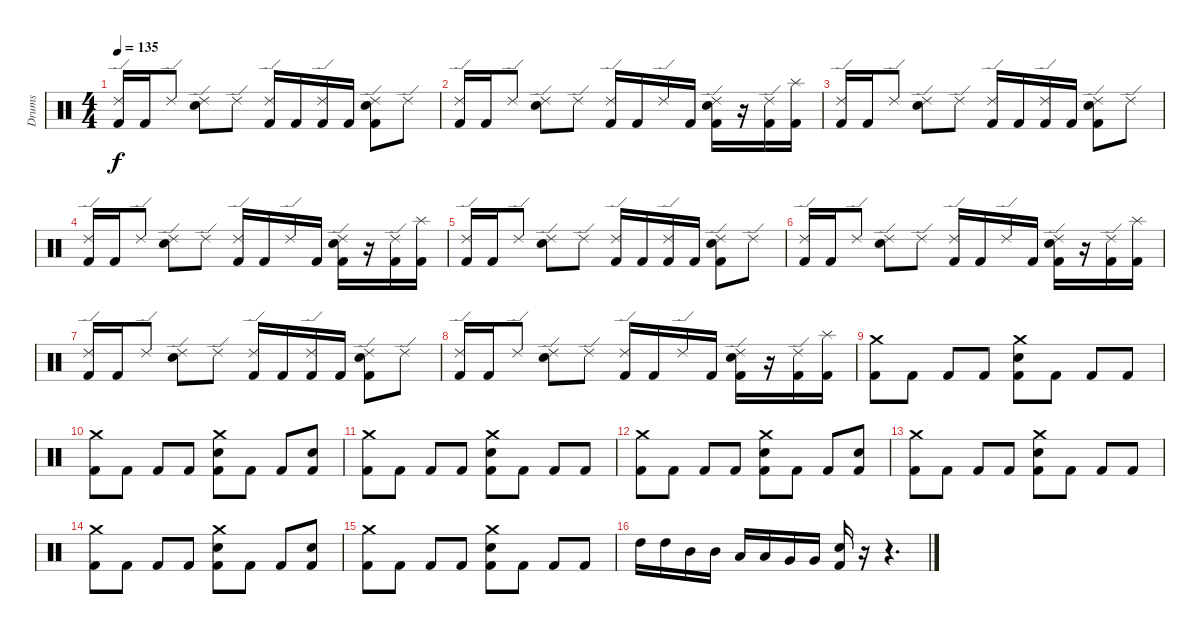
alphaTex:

\track ("Drums" "Drums") {instrument percussion}
\staff {score}
\articulation defaults
\ts (4 4)
\tempo 135
\clef neutral
\ks c
("Ride (edge) 2" "Kick (hit) 2").16{dy f} "Kick (hit) 2".16 "Ride (edge) 2".8 ("Ride (edge) 2" "Snare (hit) 2").8 "Ride (edge) 2".8 ("Ride (edge) 2" "Kick (hit) 2").16 "Kick (hit) 2".16 ("Ride (edge) 2" "Kick (hit) 2").16 "Kick (hit) 2".16 ("Ride (edge) 2" "Kick (hit) 2" "Snare (hit) 2").8 "Ride (edge) 2".8 |
("Ride (edge) 2" "Kick (hit) 2").16 "Kick (hit) 2".16 "Ride (edge) 2".8 ("Ride (edge) 2" "Snare (hit) 2").8 "Ride (edge) 2".8 ("Ride (edge) 2" "Kick (hit) 2").16 "Kick (hit) 2".16 "Ride (edge) 2".16 "Kick (hit) 2".16 ("Ride (edge) 2" "Kick (hit) 2" "Snare (hit) 2").16 r.16 ("Ride (edge) 2" "Kick (hit) 2").16 ("Splash (hit)" "Kick (hit) 2").16 |
("Ride (edge) 2" "Kick (hit) 2").16 "Kick (hit) 2".16 "Ride (edge) 2".8 ("Ride (edge) 2" "Snare (hit) 2").8 "Ride (edge) 2".8 ("Ride (edge) 2" "Kick (hit) 2").16 "Kick (hit) 2".16 ("Ride (edge) 2" "Kick (hit) 2").16 "Kick (hit) 2".16 ("Ride (edge) 2" "Kick (hit) 2" "Snare (hit) 2").8 "Ride (edge) 2".8 |
("Ride (edge) 2" "Kick (hit) 2").16 "Kick (hit) 2".16 "Ride (edge) 2".8 ("Ride (edge) 2" "Snare (hit) 2").8 "Ride (edge) 2".8 ("Ride (edge) 2" "Kick (hit) 2").16 "Kick (hit) 2".16 "Ride (edge) 2".16 "Kick (hit) 2".16 ("Ride (edge) 2" "Kick (hit) 2" "Snare (hit) 2").16 r.16 ("Ride (edge) 2" "Kick (hit) 2").16 ("Splash (hit)" "Kick (hit) 2").16 |
("Ride (edge) 2" "Kick (hit) 2").16 "Kick (hit) 2".16 "Ride (edge) 2".8 ("Ride (edge) 2" "Snare (hit) 2").8 "Ride (edge) 2".8 ("Ride (edge) 2" "Kick (hit) 2").16 "Kick (hit) 2".16 ("Ride (edge) 2" "Kick (hit) 2").16 "Kick (hit) 2".16 ("Ride (edge) 2" "Kick (hit) 2" "Snare (hit) 2").8 "Ride (edge) 2".8 |
("Ride (edge) 2" "Kick (hit) 2").16 "Kick (hit) 2".16 "Ride (edge) 2".8 ("Ride (edge) 2" "Snare (hit) 2").8 "Ride (edge) 2".8 ("Ride (edge) 2" "Kick (hit) 2").16 "Kick (hit) 2".16 "Ride (edge) 2".16 "Kick (hit) 2".16 ("Ride (edge) 2" "Kick (hit) 2" "Snare (hit) 2").16 r.16 ("Ride (edge) 2" "Kick (hit) 2").16 ("Splash (hit)" "Kick (hit) 2").16 |
("Ride (edge) 2" "Kick (hit) 2").16 "Kick (hit) 2".16 "Ride (edge) 2".8 ("Ride (edge) 2" "Snare (hit) 2").8 "Ride (edge) 2".8 ("Ride (edge) 2" "Kick (hit) 2").16 "Kick (hit) 2".16 ("Ride (edge) 2" "Kick (hit) 2").16 "Kick (hit) 2".16 ("Ride (edge) 2" "Kick (hit) 2" "Snare (hit) 2").8 "Ride (edge) 2".8 |
("Ride (edge) 2" "Kick (hit) 2").16 "Kick (hit) 2".16 "Ride (edge) 2".8 ("Ride (edge) 2" "Snare (hit) 2").8 "Ride (edge) 2".8 ("Ride (edge) 2" "Kick (hit) 2").16 "Kick (hit) 2".16 "Ride (edge) 2".16 "Kick (hit) 2".16 ("Ride (edge) 2" "Kick (hit) 2" "Snare (hit) 2").16 r.16 ("Ride (edge) 2" "Kick (hit) 2").16 ("Splash (hit)" "Kick (hit) 2").16 |
("Crash medium (hit)" "Kick (hit) 2").8 "Kick (hit) 2".8 "Kick (hit) 2".8 "Kick (hit) 2".8 ("Crash medium (hit)" "Kick (hit) 2" "Snare (hit) 2").8 "Kick (hit) 2".8 "Kick (hit) 2".8 "Kick (hit) 2".8 |
("Crash medium (hit)" "Kick (hit) 2").8 "Kick (hit) 2".8 "Kick (hit) 2".8 "Kick (hit) 2".8 ("Crash medium (hit)" "Kick (hit) 2" "Snare (hit) 2").8 "Kick (hit) 2".8 "Kick (hit) 2".8 ("Kick (hit) 2" "Snare (hit) 2").8 |
("Crash medium (hit)" "Kick (hit) 2").8 "Kick (hit) 2".8 "Kick (hit) 2".8 "Kick (hit) 2".8 ("Crash medium (hit)" "Kick (hit) 2" "Snare (hit) 2").8 "Kick (hit) 2".8 "Kick (hit) 2".8 "Kick (hit) 2".8 |
("Crash medium (hit)" "Kick (hit) 2").8 "Kick (hit) 2".8 "Kick (hit) 2".8 "Kick (hit) 2".8 ("Crash medium (hit)" "Kick (hit) 2" "Snare (hit) 2").8 "Kick (hit) 2".8 "Kick (hit) 2".8 ("Kick (hit) 2" "Snare (hit) 2").8 |
("Crash medium (hit)" "Kick (hit) 2").8 "Kick (hit) 2".8 "Kick (hit) 2".8 "Kick (hit) 2".8 ("Crash medium (hit)" "Kick (hit) 2" "Snare (hit) 2").8 "Kick (hit) 2".8 "Kick (hit) 2".8 "Kick (hit) 2".8 |
("Crash medium (hit)" "Kick (hit) 2").8 "Kick (hit) 2".8 "Kick (hit) 2".8 "Kick (hit) 2".8 ("Crash medium (hit)" "Kick (hit) 2" "Snare (hit) 2").8 "Kick (hit) 2".8 "Kick (hit) 2".8 ("Kick (hit) 2" "Snare (hit) 2").8 |
("Crash medium (hit)" "Kick (hit) 2").8 "Kick (hit) 2".8 "Kick (hit) 2".8 "Kick (hit) 2".8 ("Crash medium (hit)" "Kick (hit) 2" "Snare (hit) 2").8 "Kick (hit) 2".8 "Kick (hit) 2".8 "Kick (hit) 2".8 |
"High Tom (hit)".16 "High Tom (hit)".16 "Mid Tom (hit)".16 "Mid Tom (hit)".16 "Low Tom (hit)".16 "Low Tom (hit)".16 "Very Low Tom (hit)".16 "Very Low Tom (hit)".16 ("Snare (hit) 2" "Kick (hit) 2").16 r.16 r.4{d}
